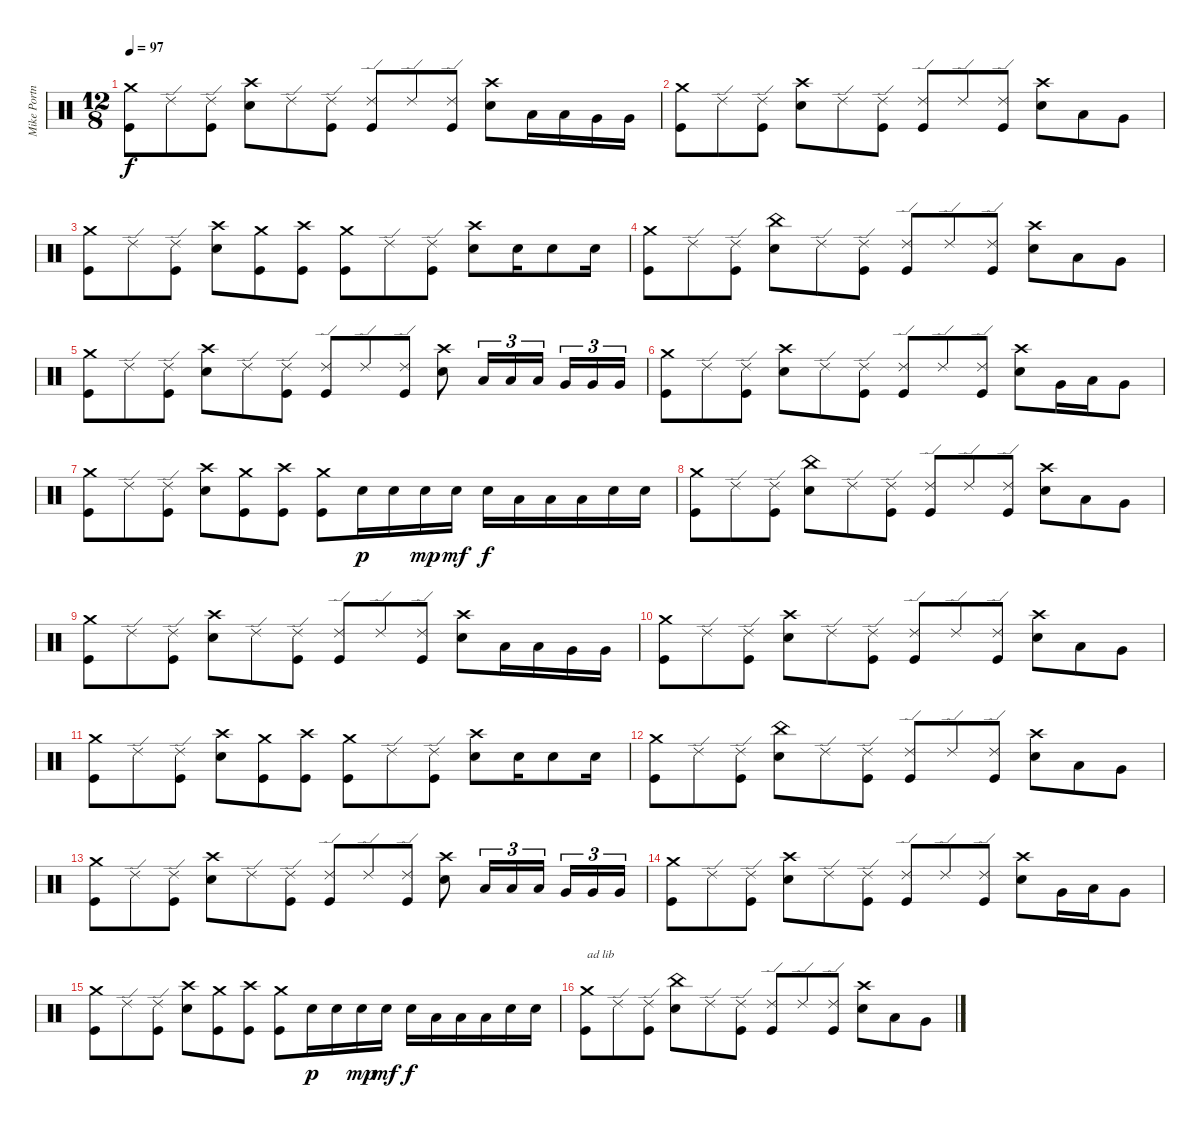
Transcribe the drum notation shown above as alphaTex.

\track ("Mike Portnoy" "Mike Portn") {instrument percussion}
\staff {score}
\articulation defaults
\ts (12 8)
\tempo 97
\clef neutral
\ks c
("Crash medium (hit)" "Kick (hit)").8{dy f} "Ride (edge) 2".8 ("Ride (edge) 2" "Kick (hit)").8 ("Crash high (hit)" "Snare (hit) 2").8 "Ride (edge) 2".8 ("Ride (edge) 2" "Kick (hit)").8 ("Ride (edge) 2" "Kick (hit)").8 "Ride (edge) 2".8 ("Ride (edge) 2" "Kick (hit)").8 ("Crash high (hit)" "Snare (hit) 2").8 "Low Tom (hit)".16 "Low Tom (hit)".16 "Very Low Tom (hit)".16 "Very Low Tom (hit)".16 |
("Crash medium (hit)" "Kick (hit)").8 "Ride (edge) 2".8 ("Ride (edge) 2" "Kick (hit)").8 ("Crash high (hit)" "Snare (hit) 2").8 "Ride (edge) 2".8 ("Ride (edge) 2" "Kick (hit)").8 ("Ride (edge) 2" "Kick (hit)").8 "Ride (edge) 2".8 ("Ride (edge) 2" "Kick (hit)").8 ("Crash high (hit)" "Snare (hit) 2").8 "Low Tom (hit)".8 "Very Low Tom (hit)".8 |
("Crash medium (hit)" "Kick (hit)").8 "Ride (edge) 2".8 ("Ride (edge) 2" "Kick (hit)").8 ("Crash high (hit)" "Snare (hit) 2").8 ("Crash medium (hit)" "Kick (hit)").8 ("Crash high (hit)" "Kick (hit)").8 ("Crash medium (hit)" "Kick (hit)").8 "Ride (edge) 2".8 ("Ride (edge) 2" "Kick (hit)").8 ("Crash high (hit)" "Snare (hit) 2").8 "Snare (hit) 2".16 "Snare (hit) 2".8 "Snare (hit) 2".16 |
("Crash medium (hit)" "Kick (hit)").8 "Ride (edge) 2".8 ("Ride (edge) 2" "Kick (hit)").8 ("China (hit)" "Snare (hit) 2").8 "Ride (edge) 2".8 ("Ride (edge) 2" "Kick (hit)").8 ("Ride (edge) 2" "Kick (hit)").8 "Ride (edge) 2".8 ("Ride (edge) 2" "Kick (hit)").8 ("Crash high (hit)" "Snare (hit) 2").8 "Low Tom (hit)".8 "Very Low Tom (hit)".8 |
("Crash medium (hit)" "Kick (hit)").8 "Ride (edge) 2".8 ("Ride (edge) 2" "Kick (hit)").8 ("Crash high (hit)" "Snare (hit) 2").8 "Ride (edge) 2".8 ("Ride (edge) 2" "Kick (hit)").8 ("Ride (edge) 2" "Kick (hit)").8 "Ride (edge) 2".8 ("Ride (edge) 2" "Kick (hit)").8 ("Crash high (hit)" "Snare (hit) 2").8 "Low Tom (hit)".16{tu (3 2)} "Low Tom (hit)".16{tu (3 2)} "Low Tom (hit)".16{tu (3 2)} "Very Low Tom (hit)".16{tu (3 2)} "Very Low Tom (hit)".16{tu (3 2)} "Very Low Tom (hit)".16{tu (3 2)} |
("Crash medium (hit)" "Kick (hit)").8 "Ride (edge) 2".8 ("Ride (edge) 2" "Kick (hit)").8 ("Crash high (hit)" "Snare (hit) 2").8 "Ride (edge) 2".8 ("Ride (edge) 2" "Kick (hit)").8 ("Ride (edge) 2" "Kick (hit)").8 "Ride (edge) 2".8 ("Ride (edge) 2" "Kick (hit)").8 ("Crash high (hit)" "Snare (hit) 2").8 "Very Low Tom (hit)".16 "Low Tom (hit)".16 "Very Low Tom (hit)".8 |
("Crash medium (hit)" "Kick (hit)").8 "Ride (edge) 2".8 ("Ride (edge) 2" "Kick (hit)").8 ("Crash high (hit)" "Snare (hit) 2").8 ("Crash medium (hit)" "Kick (hit)").8 ("Crash high (hit)" "Kick (hit)").8 ("Crash medium (hit)" "Kick (hit)").8 "Snare (hit) 2".16{dy p} "Snare (hit) 2".16 "Snare (hit) 2".16{dy mp} "Snare (hit) 2".16{dy mf} "Snare (hit) 2".16{dy f} "Low Tom (hit)".16 "Low Tom (hit)".16 "Low Tom (hit)".16 "Snare (hit) 2".16 "Snare (hit) 2".16 |
("Crash medium (hit)" "Kick (hit)").8 "Ride (edge) 2".8 ("Ride (edge) 2" "Kick (hit)").8 ("China (hit)" "Snare (hit) 2").8 "Ride (edge) 2".8 ("Ride (edge) 2" "Kick (hit)").8 ("Ride (edge) 2" "Kick (hit)").8 "Ride (edge) 2".8 ("Ride (edge) 2" "Kick (hit)").8 ("Crash high (hit)" "Snare (hit) 2").8 "Low Tom (hit)".8 "Very Low Tom (hit)".8 |
("Crash medium (hit)" "Kick (hit)").8 "Ride (edge) 2".8 ("Ride (edge) 2" "Kick (hit)").8 ("Crash high (hit)" "Snare (hit) 2").8 "Ride (edge) 2".8 ("Ride (edge) 2" "Kick (hit)").8 ("Ride (edge) 2" "Kick (hit)").8 "Ride (edge) 2".8 ("Ride (edge) 2" "Kick (hit)").8 ("Crash high (hit)" "Snare (hit) 2").8 "Low Tom (hit)".16 "Low Tom (hit)".16 "Very Low Tom (hit)".16 "Very Low Tom (hit)".16 |
("Crash medium (hit)" "Kick (hit)").8 "Ride (edge) 2".8 ("Ride (edge) 2" "Kick (hit)").8 ("Crash high (hit)" "Snare (hit) 2").8 "Ride (edge) 2".8 ("Ride (edge) 2" "Kick (hit)").8 ("Ride (edge) 2" "Kick (hit)").8 "Ride (edge) 2".8 ("Ride (edge) 2" "Kick (hit)").8 ("Crash high (hit)" "Snare (hit) 2").8 "Low Tom (hit)".8 "Very Low Tom (hit)".8 |
("Crash medium (hit)" "Kick (hit)").8 "Ride (edge) 2".8 ("Ride (edge) 2" "Kick (hit)").8 ("Crash high (hit)" "Snare (hit) 2").8 ("Crash medium (hit)" "Kick (hit)").8 ("Crash high (hit)" "Kick (hit)").8 ("Crash medium (hit)" "Kick (hit)").8 "Ride (edge) 2".8 ("Ride (edge) 2" "Kick (hit)").8 ("Crash high (hit)" "Snare (hit) 2").8 "Snare (hit) 2".16 "Snare (hit) 2".8 "Snare (hit) 2".16 |
("Crash medium (hit)" "Kick (hit)").8 "Ride (edge) 2".8 ("Ride (edge) 2" "Kick (hit)").8 ("China (hit)" "Snare (hit) 2").8 "Ride (edge) 2".8 ("Ride (edge) 2" "Kick (hit)").8 ("Ride (edge) 2" "Kick (hit)").8 "Ride (edge) 2".8 ("Ride (edge) 2" "Kick (hit)").8 ("Crash high (hit)" "Snare (hit) 2").8 "Low Tom (hit)".8 "Very Low Tom (hit)".8 |
("Crash medium (hit)" "Kick (hit)").8 "Ride (edge) 2".8 ("Ride (edge) 2" "Kick (hit)").8 ("Crash high (hit)" "Snare (hit) 2").8 "Ride (edge) 2".8 ("Ride (edge) 2" "Kick (hit)").8 ("Ride (edge) 2" "Kick (hit)").8 "Ride (edge) 2".8 ("Ride (edge) 2" "Kick (hit)").8 ("Crash high (hit)" "Snare (hit) 2").8 "Low Tom (hit)".16{tu (3 2)} "Low Tom (hit)".16{tu (3 2)} "Low Tom (hit)".16{tu (3 2)} "Very Low Tom (hit)".16{tu (3 2)} "Very Low Tom (hit)".16{tu (3 2)} "Very Low Tom (hit)".16{tu (3 2)} |
("Crash medium (hit)" "Kick (hit)").8 "Ride (edge) 2".8 ("Ride (edge) 2" "Kick (hit)").8 ("Crash high (hit)" "Snare (hit) 2").8 "Ride (edge) 2".8 ("Ride (edge) 2" "Kick (hit)").8 ("Ride (edge) 2" "Kick (hit)").8 "Ride (edge) 2".8 ("Ride (edge) 2" "Kick (hit)").8 ("Crash high (hit)" "Snare (hit) 2").8 "Very Low Tom (hit)".16 "Low Tom (hit)".16 "Very Low Tom (hit)".8 |
("Crash medium (hit)" "Kick (hit)").8 "Ride (edge) 2".8 ("Ride (edge) 2" "Kick (hit)").8 ("Crash high (hit)" "Snare (hit) 2").8 ("Crash medium (hit)" "Kick (hit)").8 ("Crash high (hit)" "Kick (hit)").8 ("Crash medium (hit)" "Kick (hit)").8 "Snare (hit) 2".16{dy p} "Snare (hit) 2".16 "Snare (hit) 2".16{dy mp} "Snare (hit) 2".16{dy mf} "Snare (hit) 2".16{dy f} "Low Tom (hit)".16 "Low Tom (hit)".16 "Low Tom (hit)".16 "Snare (hit) 2".16 "Snare (hit) 2".16 |
("Crash medium (hit)" "Kick (hit)").8{txt "ad lib"} "Ride (edge) 2".8 ("Ride (edge) 2" "Kick (hit)").8 ("China (hit)" "Snare (hit) 2").8 "Ride (edge) 2".8 ("Ride (edge) 2" "Kick (hit)").8 ("Ride (edge) 2" "Kick (hit)").8 "Ride (edge) 2".8 ("Ride (edge) 2" "Kick (hit)").8 ("Crash high (hit)" "Snare (hit) 2").8 "Low Tom (hit)".8 "Very Low Tom (hit)".8
